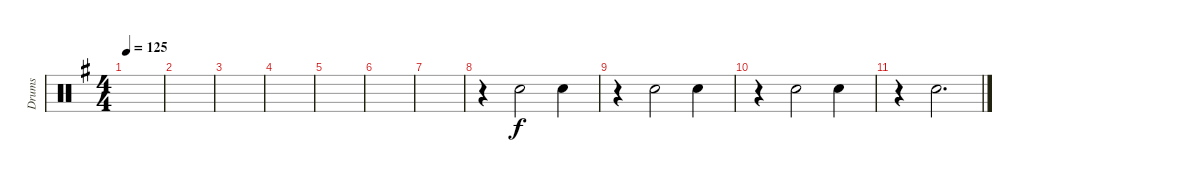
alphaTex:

\defaultSystemsLayout 4
\bracketExtendMode groupsimilarinstruments
\otherSystemsTrackNameOrientation horizontal
\track ("Drumkit" "Drums") {instrument percussion}
\staff {score}
\articulation defaults
\ts (4 4)
\tempo 125
\clef neutral
\scale
0.333333
\ks g
|
\scale
0.333333 |
\scale
0.333333 |
\scale
0.333333 |
\scale
0.333333 |
\scale
0.333333 |
\scale
0.333333 |
\scale
0.333333 r.4{beam Down} "Snare (hit) 2"{acc forcenatural}.2{beam Down} "Snare (hit) 2"{acc forcenatural}.4{beam Down} |
\scale
0.333333 r.4{beam Down} "Snare (hit) 2"{acc forcenatural}.2{beam Down} "Snare (hit) 2"{acc forcenatural}.4{beam Down} |
\scale
0.333333 r.4{beam Down} "Snare (hit) 2"{acc forcenatural}.2{beam Down} "Snare (hit) 2"{acc forcenatural}.4{beam Down} |
\scale
0.333333 r.4{beam Down} "Snare (hit) 2"{acc forcenatural}.2{d beam Down} |
\scale
0.333333 |
\scale
0.333333 |
\scale
0.333333 |
\scale
0.333333 |
\scale
0.333333
